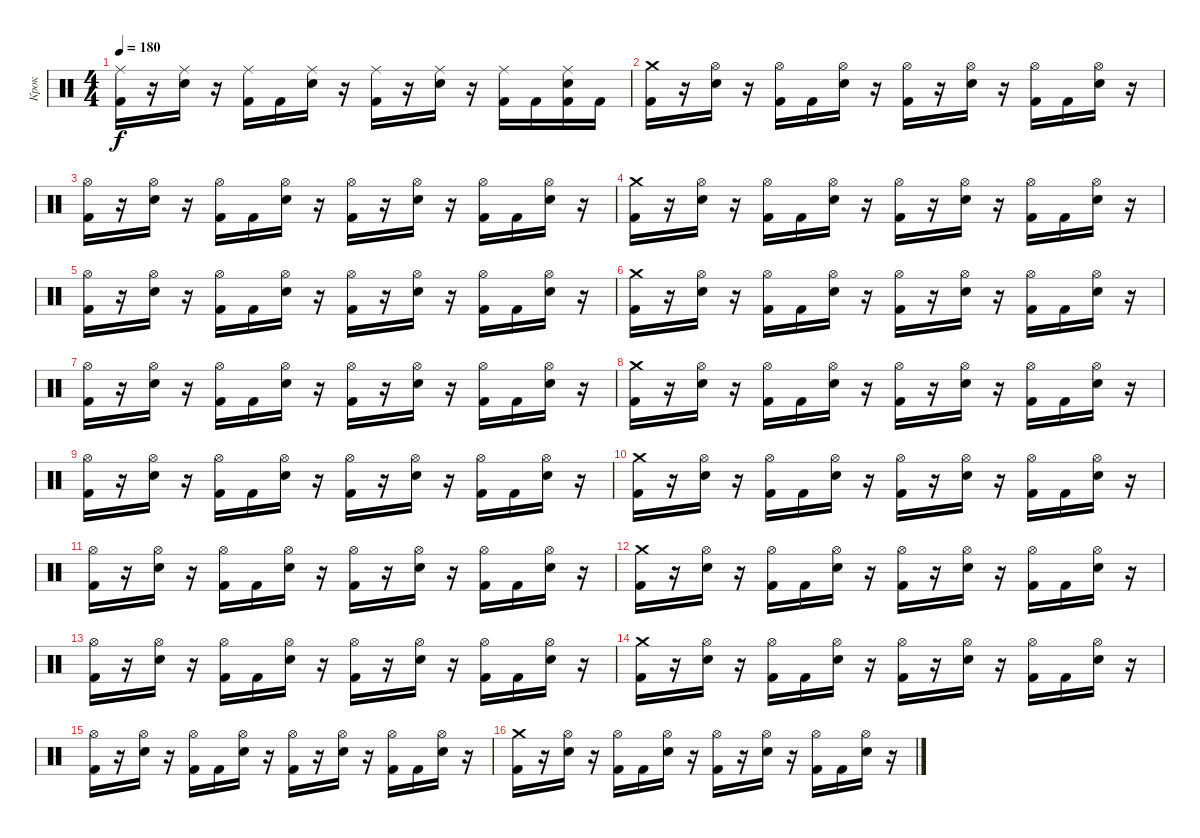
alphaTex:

\track ("Крок" "Крок") {instrument percussion}
\staff {score}
\articulation defaults
\ts (4 4)
\tempo 180
\clef neutral
\ks c
("Kick (hit) 2" "Ride (middle)").16{dy f} r.16 ("Electric Snare (hit)" "Ride (middle)").16 r.16 ("Kick (hit) 2" "Ride (middle)").16 "Kick (hit) 2".16 ("Electric Snare (hit)" "Ride (middle)").16 r.16 ("Kick (hit) 2" "Ride (middle)").16 r.16 ("Electric Snare (hit)" "Ride (middle)").16 r.16 ("Kick (hit) 2" "Ride (middle)").16 "Kick (hit) 2".16 ("Kick (hit) 2" "Electric Snare (hit)" "Ride (middle)").16 "Kick (hit) 2".16 |
("Kick (hit) 2" "Crash medium (hit)").16 r.16 ("Electric Snare (hit)" "Hi-Hat (open)").16 r.16 ("Kick (hit) 2" "Hi-Hat (open)").16 "Kick (hit) 2".16 ("Electric Snare (hit)" "Hi-Hat (open)").16 r.16 ("Kick (hit) 2" "Hi-Hat (open)").16 r.16 ("Electric Snare (hit)" "Hi-Hat (open)").16 r.16 ("Kick (hit) 2" "Hi-Hat (open)").16 "Kick (hit) 2".16 ("Electric Snare (hit)" "Hi-Hat (open)").16 r.16 |
("Kick (hit) 2" "Hi-Hat (open)").16 r.16 ("Electric Snare (hit)" "Hi-Hat (open)").16 r.16 ("Kick (hit) 2" "Hi-Hat (open)").16 "Kick (hit) 2".16 ("Electric Snare (hit)" "Hi-Hat (open)").16 r.16 ("Kick (hit) 2" "Hi-Hat (open)").16 r.16 ("Electric Snare (hit)" "Hi-Hat (open)").16 r.16 ("Kick (hit) 2" "Hi-Hat (open)").16 "Kick (hit) 2".16 ("Electric Snare (hit)" "Hi-Hat (open)").16 r.16 |
("Kick (hit) 2" "Crash medium (hit)").16 r.16 ("Electric Snare (hit)" "Hi-Hat (open)").16 r.16 ("Kick (hit) 2" "Hi-Hat (open)").16 "Kick (hit) 2".16 ("Electric Snare (hit)" "Hi-Hat (open)").16 r.16 ("Kick (hit) 2" "Hi-Hat (open)").16 r.16 ("Electric Snare (hit)" "Hi-Hat (open)").16 r.16 ("Kick (hit) 2" "Hi-Hat (open)").16 "Kick (hit) 2".16 ("Electric Snare (hit)" "Hi-Hat (open)").16 r.16 |
("Kick (hit) 2" "Hi-Hat (open)").16 r.16 ("Electric Snare (hit)" "Hi-Hat (open)").16 r.16 ("Kick (hit) 2" "Hi-Hat (open)").16 "Kick (hit) 2".16 ("Electric Snare (hit)" "Hi-Hat (open)").16 r.16 ("Kick (hit) 2" "Hi-Hat (open)").16 r.16 ("Electric Snare (hit)" "Hi-Hat (open)").16 r.16 ("Kick (hit) 2" "Hi-Hat (open)").16 "Kick (hit) 2".16 ("Electric Snare (hit)" "Hi-Hat (open)").16 r.16 |
("Kick (hit) 2" "Crash medium (hit)").16 r.16 ("Electric Snare (hit)" "Hi-Hat (open)").16 r.16 ("Kick (hit) 2" "Hi-Hat (open)").16 "Kick (hit) 2".16 ("Electric Snare (hit)" "Hi-Hat (open)").16 r.16 ("Kick (hit) 2" "Hi-Hat (open)").16 r.16 ("Electric Snare (hit)" "Hi-Hat (open)").16 r.16 ("Kick (hit) 2" "Hi-Hat (open)").16 "Kick (hit) 2".16 ("Electric Snare (hit)" "Hi-Hat (open)").16 r.16 |
("Kick (hit) 2" "Hi-Hat (open)").16 r.16 ("Electric Snare (hit)" "Hi-Hat (open)").16 r.16 ("Kick (hit) 2" "Hi-Hat (open)").16 "Kick (hit) 2".16 ("Electric Snare (hit)" "Hi-Hat (open)").16 r.16 ("Kick (hit) 2" "Hi-Hat (open)").16 r.16 ("Electric Snare (hit)" "Hi-Hat (open)").16 r.16 ("Kick (hit) 2" "Hi-Hat (open)").16 "Kick (hit) 2".16 ("Electric Snare (hit)" "Hi-Hat (open)").16 r.16 |
("Kick (hit) 2" "Crash medium (hit)").16 r.16 ("Electric Snare (hit)" "Hi-Hat (open)").16 r.16 ("Kick (hit) 2" "Hi-Hat (open)").16 "Kick (hit) 2".16 ("Electric Snare (hit)" "Hi-Hat (open)").16 r.16 ("Kick (hit) 2" "Hi-Hat (open)").16 r.16 ("Electric Snare (hit)" "Hi-Hat (open)").16 r.16 ("Kick (hit) 2" "Hi-Hat (open)").16 "Kick (hit) 2".16 ("Electric Snare (hit)" "Hi-Hat (open)").16 r.16 |
("Kick (hit) 2" "Hi-Hat (open)").16 r.16 ("Electric Snare (hit)" "Hi-Hat (open)").16 r.16 ("Kick (hit) 2" "Hi-Hat (open)").16 "Kick (hit) 2".16 ("Electric Snare (hit)" "Hi-Hat (open)").16 r.16 ("Kick (hit) 2" "Hi-Hat (open)").16 r.16 ("Electric Snare (hit)" "Hi-Hat (open)").16 r.16 ("Kick (hit) 2" "Hi-Hat (open)").16 "Kick (hit) 2".16 ("Electric Snare (hit)" "Hi-Hat (open)").16 r.16 |
("Kick (hit) 2" "Crash medium (hit)").16 r.16 ("Electric Snare (hit)" "Hi-Hat (open)").16 r.16 ("Kick (hit) 2" "Hi-Hat (open)").16 "Kick (hit) 2".16 ("Electric Snare (hit)" "Hi-Hat (open)").16 r.16 ("Kick (hit) 2" "Hi-Hat (open)").16 r.16 ("Electric Snare (hit)" "Hi-Hat (open)").16 r.16 ("Kick (hit) 2" "Hi-Hat (open)").16 "Kick (hit) 2".16 ("Electric Snare (hit)" "Hi-Hat (open)").16 r.16 |
("Kick (hit) 2" "Hi-Hat (open)").16 r.16 ("Electric Snare (hit)" "Hi-Hat (open)").16 r.16 ("Kick (hit) 2" "Hi-Hat (open)").16 "Kick (hit) 2".16 ("Electric Snare (hit)" "Hi-Hat (open)").16 r.16 ("Kick (hit) 2" "Hi-Hat (open)").16 r.16 ("Electric Snare (hit)" "Hi-Hat (open)").16 r.16 ("Kick (hit) 2" "Hi-Hat (open)").16 "Kick (hit) 2".16 ("Electric Snare (hit)" "Hi-Hat (open)").16 r.16 |
("Kick (hit) 2" "Crash medium (hit)").16 r.16 ("Electric Snare (hit)" "Hi-Hat (open)").16 r.16 ("Kick (hit) 2" "Hi-Hat (open)").16 "Kick (hit) 2".16 ("Electric Snare (hit)" "Hi-Hat (open)").16 r.16 ("Kick (hit) 2" "Hi-Hat (open)").16 r.16 ("Electric Snare (hit)" "Hi-Hat (open)").16 r.16 ("Kick (hit) 2" "Hi-Hat (open)").16 "Kick (hit) 2".16 ("Electric Snare (hit)" "Hi-Hat (open)").16 r.16 |
("Kick (hit) 2" "Hi-Hat (open)").16 r.16 ("Electric Snare (hit)" "Hi-Hat (open)").16 r.16 ("Kick (hit) 2" "Hi-Hat (open)").16 "Kick (hit) 2".16 ("Electric Snare (hit)" "Hi-Hat (open)").16 r.16 ("Kick (hit) 2" "Hi-Hat (open)").16 r.16 ("Electric Snare (hit)" "Hi-Hat (open)").16 r.16 ("Kick (hit) 2" "Hi-Hat (open)").16 "Kick (hit) 2".16 ("Electric Snare (hit)" "Hi-Hat (open)").16 r.16 |
("Kick (hit) 2" "Crash medium (hit)").16 r.16 ("Electric Snare (hit)" "Hi-Hat (open)").16 r.16 ("Kick (hit) 2" "Hi-Hat (open)").16 "Kick (hit) 2".16 ("Electric Snare (hit)" "Hi-Hat (open)").16 r.16 ("Kick (hit) 2" "Hi-Hat (open)").16 r.16 ("Electric Snare (hit)" "Hi-Hat (open)").16 r.16 ("Kick (hit) 2" "Hi-Hat (open)").16 "Kick (hit) 2".16 ("Electric Snare (hit)" "Hi-Hat (open)").16 r.16 |
("Kick (hit) 2" "Hi-Hat (open)").16 r.16 ("Electric Snare (hit)" "Hi-Hat (open)").16 r.16 ("Kick (hit) 2" "Hi-Hat (open)").16 "Kick (hit) 2".16 ("Electric Snare (hit)" "Hi-Hat (open)").16 r.16 ("Kick (hit) 2" "Hi-Hat (open)").16 r.16 ("Electric Snare (hit)" "Hi-Hat (open)").16 r.16 ("Kick (hit) 2" "Hi-Hat (open)").16 "Kick (hit) 2".16 ("Electric Snare (hit)" "Hi-Hat (open)").16 r.16 |
("Kick (hit) 2" "Crash medium (hit)").16 r.16 ("Electric Snare (hit)" "Hi-Hat (open)").16 r.16 ("Kick (hit) 2" "Hi-Hat (open)").16 "Kick (hit) 2".16 ("Electric Snare (hit)" "Hi-Hat (open)").16 r.16 ("Kick (hit) 2" "Hi-Hat (open)").16 r.16 ("Electric Snare (hit)" "Hi-Hat (open)").16 r.16 ("Kick (hit) 2" "Hi-Hat (open)").16 "Kick (hit) 2".16 ("Electric Snare (hit)" "Hi-Hat (open)").16 r.16
